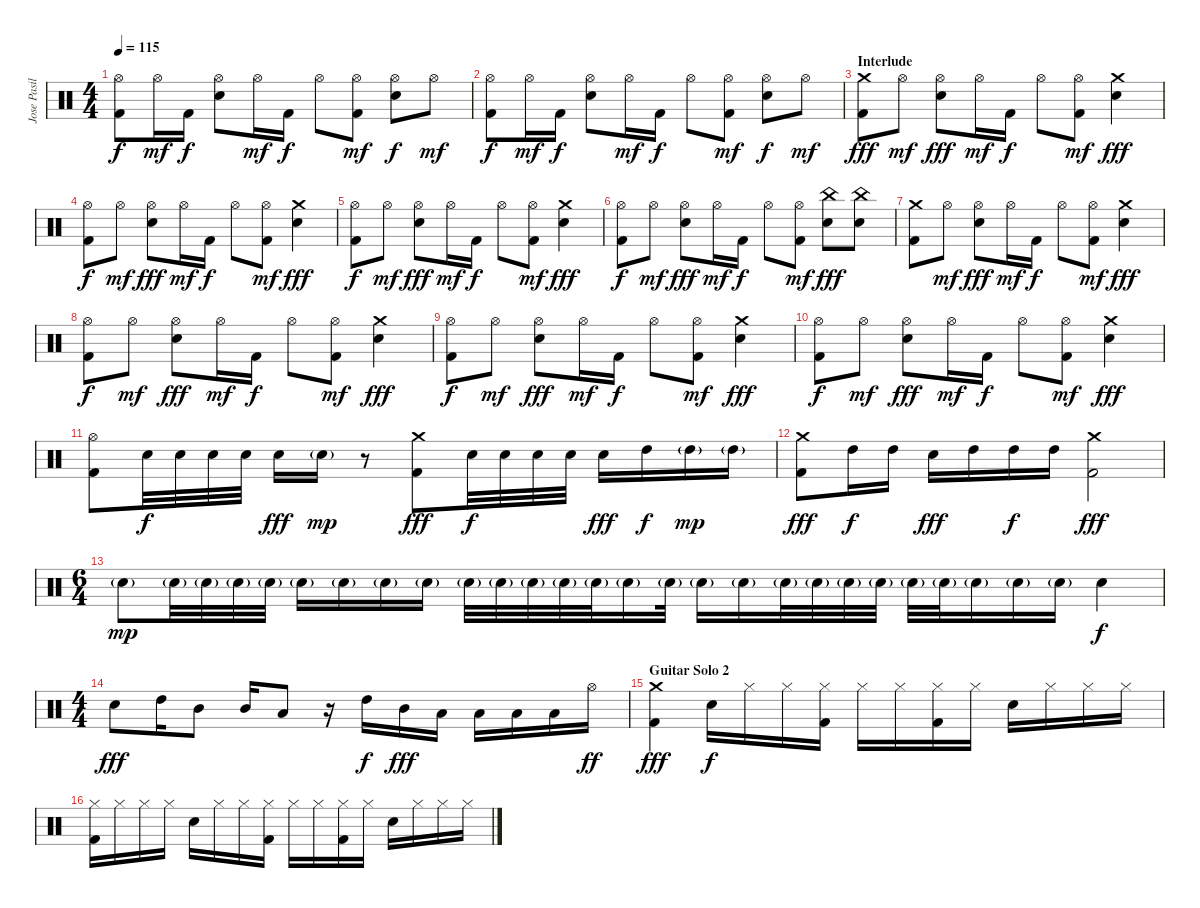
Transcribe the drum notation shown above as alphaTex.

\track ("Jose Pasillas - Drums" "Jose Pasil") {instrument percussion}
\staff {score}
\articulation defaults
\ts (4 4)
\tempo 115
\clef neutral
\ks c
("Hi-Hat (open)" "Kick (hit) 2").8{dy f} "Hi-Hat (open)".16{dy mf} "Kick (hit) 2".16{dy f} ("Hi-Hat (open)" "Electric Snare (hit)").8 "Hi-Hat (open)".16{dy mf} "Kick (hit) 2".16{dy f} "Hi-Hat (open)".8 ("Hi-Hat (open)" "Kick (hit) 2").8{dy mf} ("Hi-Hat (open)" "Electric Snare (hit)").8{dy f} "Hi-Hat (open)".8{dy mf} |
("Hi-Hat (open)" "Kick (hit) 2").8{dy f} "Hi-Hat (open)".16{dy mf} "Kick (hit) 2".16{dy f} ("Hi-Hat (open)" "Electric Snare (hit)").8 "Hi-Hat (open)".16{dy mf} "Kick (hit) 2".16{dy f} "Hi-Hat (open)".8 ("Hi-Hat (open)" "Kick (hit) 2").8{dy mf} ("Hi-Hat (open)" "Electric Snare (hit)").8{dy f} "Hi-Hat (open)".8{dy mf} |
\section ("" "Interlude")
("Crash medium (hit)" "Kick (hit) 2").8{dy fff} "Hi-Hat (open)".8{dy mf} ("Hi-Hat (open)" "Electric Snare (hit)").8{dy fff} "Hi-Hat (open)".16{dy mf} "Kick (hit) 2".16{dy f} "Hi-Hat (open)".8 ("Hi-Hat (open)" "Kick (hit) 2").8{dy mf} ("Crash medium (hit)" "Electric Snare (hit)").4{dy fff} |
("Hi-Hat (open)" "Kick (hit) 2").8{dy f} "Hi-Hat (open)".8{dy mf} ("Hi-Hat (open)" "Electric Snare (hit)").8{dy fff} "Hi-Hat (open)".16{dy mf} "Kick (hit) 2".16{dy f} "Hi-Hat (open)".8 ("Hi-Hat (open)" "Kick (hit) 2").8{dy mf} ("Crash medium (hit)" "Electric Snare (hit)").4{dy fff} |
("Hi-Hat (open)" "Kick (hit) 2").8{dy f} "Hi-Hat (open)".8{dy mf} ("Hi-Hat (open)" "Electric Snare (hit)").8{dy fff} "Hi-Hat (open)".16{dy mf} "Kick (hit) 2".16{dy f} "Hi-Hat (open)".8 ("Hi-Hat (open)" "Kick (hit) 2").8{dy mf} ("Crash medium (hit)" "Electric Snare (hit)").4{dy fff} |
("Hi-Hat (open)" "Kick (hit) 2").8{dy f} "Hi-Hat (open)".8{dy mf} ("Hi-Hat (open)" "Electric Snare (hit)").8{dy fff} "Hi-Hat (open)".16{dy mf} "Kick (hit) 2".16{dy f} "Hi-Hat (open)".8 ("Hi-Hat (open)" "Kick (hit) 2").8{dy mf} ("China (hit)" "Electric Snare (hit)").8{dy fff} ("China (hit)" "Electric Snare (hit)").8 |
("Crash medium (hit)" "Kick (hit) 2").8 "Hi-Hat (open)".8{dy mf} ("Hi-Hat (open)" "Electric Snare (hit)").8{dy fff} "Hi-Hat (open)".16{dy mf} "Kick (hit) 2".16{dy f} "Hi-Hat (open)".8 ("Hi-Hat (open)" "Kick (hit) 2").8{dy mf} ("Crash medium (hit)" "Electric Snare (hit)").4{dy fff} |
("Hi-Hat (open)" "Kick (hit) 2").8{dy f} "Hi-Hat (open)".8{dy mf} ("Hi-Hat (open)" "Electric Snare (hit)").8{dy fff} "Hi-Hat (open)".16{dy mf} "Kick (hit) 2".16{dy f} "Hi-Hat (open)".8 ("Hi-Hat (open)" "Kick (hit) 2").8{dy mf} ("Crash medium (hit)" "Electric Snare (hit)").4{dy fff} |
("Hi-Hat (open)" "Kick (hit) 2").8{dy f} "Hi-Hat (open)".8{dy mf} ("Hi-Hat (open)" "Electric Snare (hit)").8{dy fff} "Hi-Hat (open)".16{dy mf} "Kick (hit) 2".16{dy f} "Hi-Hat (open)".8 ("Hi-Hat (open)" "Kick (hit) 2").8{dy mf} ("Crash medium (hit)" "Electric Snare (hit)").4{dy fff} |
("Hi-Hat (open)" "Kick (hit) 2").8{dy f} "Hi-Hat (open)".8{dy mf} ("Hi-Hat (open)" "Electric Snare (hit)").8{dy fff} "Hi-Hat (open)".16{dy mf} "Kick (hit) 2".16{dy f} "Hi-Hat (open)".8 ("Hi-Hat (open)" "Kick (hit) 2").8{dy mf} ("Crash medium (hit)" "Electric Snare (hit)").4{dy fff} |
("Hi-Hat (open)" "Kick (hit) 2").8 "Electric Snare (hit)".32{dy f} "Electric Snare (hit)".32 "Electric Snare (hit)".32 "Electric Snare (hit)".32 "Electric Snare (hit)".16{dy fff} "Electric Snare (hit)"{g}.16{dy mp} r.8 ("Crash medium (hit)" "Kick (hit) 2").8{dy fff} "Electric Snare (hit)".32{dy f} "Electric Snare (hit)".32 "Electric Snare (hit)".32 "Electric Snare (hit)".32 "Electric Snare (hit)".16{dy fff} "High Tom (hit)".16{dy f} "High Tom (hit)"{g}.16{dy mp} "High Tom (hit)"{g}.16 |
("Crash medium (hit)" "Kick (hit) 2").8{dy fff} "High Tom (hit)".16{dy f} "High Tom (hit)".16 "Electric Snare (hit)".16{dy fff} "High Tom (hit)".16 "High Tom (hit)".16{dy f} "High Tom (hit)".16 ("Crash medium (hit)" "Kick (hit) 2").2{dy fff} |
\ts (6 4)
"Electric Snare (hit)"{g}.8{dy mp} "Electric Snare (hit)"{g}.32 "Electric Snare (hit)"{g}.32 "Electric Snare (hit)"{g}.32 "Electric Snare (hit)"{g}.32 "Electric Snare (hit)"{g}.16 "Electric Snare (hit)"{g}.16 "Electric Snare (hit)"{g}.16 "Electric Snare (hit)"{g}.16 "Electric Snare (hit)"{g}.32 "Electric Snare (hit)"{g}.32 "Electric Snare (hit)"{g}.32 "Electric Snare (hit)"{g}.32 "Electric Snare (hit)"{g}.32 "Electric Snare (hit)"{g}.16 "Electric Snare (hit)"{g}.32 "Electric Snare (hit)"{g}.16 "Electric Snare (hit)"{g}.16 "Electric Snare (hit)"{g}.32 "Electric Snare (hit)"{g}.32 "Electric Snare (hit)"{g}.32 "Electric Snare (hit)"{g}.32 "Electric Snare (hit)"{g}.32 "Electric Snare (hit)"{g}.32 "Electric Snare (hit)"{g}.16 "Electric Snare (hit)"{g}.16 "Electric Snare (hit)"{g}.16 "Electric Snare (hit)".4{dy f} |
\ts (4 4)
"Electric Snare (hit)".8{dy fff} "High Tom (hit)".16 "Mid Tom (hit)".8 "Mid Tom (hit)".16 "Low Tom (hit)".8 r.16 "High Tom (hit)".16{dy f} "Mid Tom (hit)".16{dy fff} "Low Tom (hit)".16 "Low Tom (hit)".16 "Low Tom (hit)".16 "Low Tom (hit)".16 "Hi-Hat (open)".16{dy ff} |
\section ("" "Guitar Solo 2")
("Crash medium (hit)" "Kick (hit) 2").4{dy fff} "Electric Snare (hit)".16{dy f} "Hi-Hat (closed)".16 "Hi-Hat (closed)".16 ("Hi-Hat (closed)" "Kick (hit) 2").16 "Hi-Hat (closed)".16 "Hi-Hat (closed)".16 ("Hi-Hat (closed)" "Kick (hit) 2").16 "Hi-Hat (closed)".16 "Electric Snare (hit)".16 "Hi-Hat (closed)".16 "Hi-Hat (closed)".16 "Hi-Hat (closed)".16 |
("Hi-Hat (closed)" "Kick (hit) 2").16 "Hi-Hat (closed)".16 "Hi-Hat (closed)".16 "Hi-Hat (closed)".16 "Electric Snare (hit)".16 "Hi-Hat (closed)".16 "Hi-Hat (closed)".16 ("Hi-Hat (closed)" "Kick (hit) 2").16 "Hi-Hat (closed)".16 "Hi-Hat (closed)".16 ("Hi-Hat (closed)" "Kick (hit) 2").16 "Hi-Hat (closed)".16 "Electric Snare (hit)".16 "Hi-Hat (closed)".16 "Hi-Hat (closed)".16 "Hi-Hat (closed)".16
